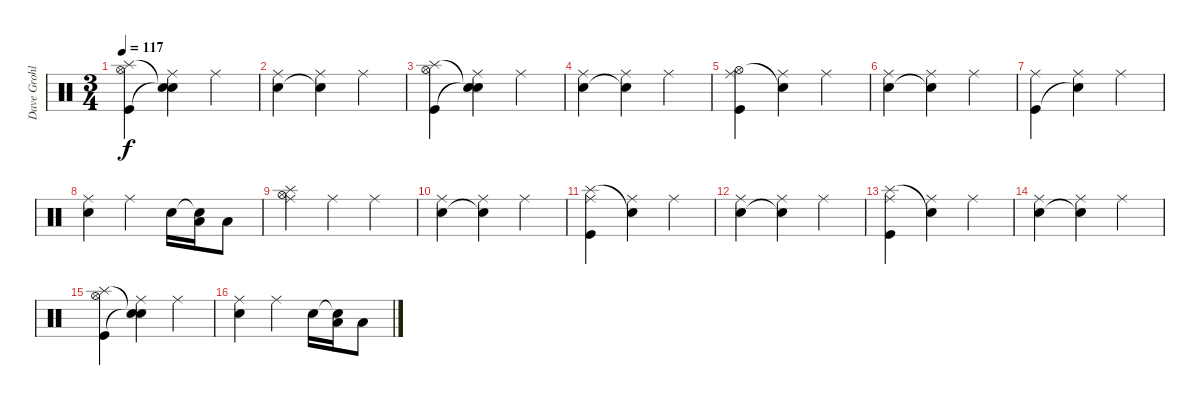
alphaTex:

\track ("Dave Grohl" "Dave Grohl") {instrument percussion}
\staff {score}
\articulation defaults
\ts (3 4)
\tempo 117
\clef neutral
\ks c
("Splash (hit)" "Kick (hit)" "Hi-Hat (open)").4{dy f} ("Snare (hit)"{t} "Snare (hit)"{t} "Ride (middle)").4 "Ride (middle)".4 |
("Electric Snare (hit)" "Ride (middle)").4 ("Snare (hit)"{t} "Ride (middle)").4 "Ride (middle)".4 |
("Splash (hit)" "Kick (hit)" "Hi-Hat (open)").4 ("Snare (hit)"{t} "Snare (hit)"{t} "Ride (middle)").4 "Ride (middle)".4 |
("Electric Snare (hit)" "Ride (middle)").4 ("Snare (hit)"{t} "Ride (middle)").4 "Ride (middle)".4 |
("Hi-Hat (open)" "Kick (hit)" "Ride (middle)").4 ("Snare (hit)"{t} "Ride (middle)").4 "Ride (middle)".4 |
("Electric Snare (hit)" "Ride (middle)").4 ("Snare (hit)"{t} "Ride (middle)").4 "Ride (middle)".4 |
("Kick (hit)" "Ride (middle)").4 ("Snare (hit)"{t} "Ride (middle)").4 "Ride (middle)".4 |
("Electric Snare (hit)" "Ride (middle)").4 "Ride (middle)".4 "Electric Snare (hit)".16 ("Snare (hit)"{t} "Low Tom (hit)").16 "Low Floor Tom (hit)".8 |
("Splash (hit)" "Hi-Hat (open)" "Ride (middle)").4 "Ride (middle)".4 "Ride (middle)".4 |
("Electric Snare (hit)" "Ride (middle)").4 ("Snare (hit)"{t} "Ride (middle)").4 "Ride (middle)".4 |
("Splash (hit)" "Kick (hit)" "Ride (middle)").4 ("Snare (hit)"{t} "Ride (middle)").4 "Ride (middle)".4 |
("Electric Snare (hit)" "Ride (middle)").4 ("Snare (hit)"{t} "Ride (middle)").4 "Ride (middle)".4 |
("Splash (hit)" "Kick (hit)" "Ride (middle)").4 ("Snare (hit)"{t} "Ride (middle)").4 "Ride (middle)".4 |
("Electric Snare (hit)" "Ride (middle)").4 ("Snare (hit)"{t} "Ride (middle)").4 "Ride (middle)".4 |
("Splash (hit)" "Kick (hit)" "Hi-Hat (open)").4 ("Snare (hit)"{t} "Snare (hit)"{t} "Ride (middle)").4 "Ride (middle)".4 |
("Electric Snare (hit)" "Ride (middle)").4 "Ride (middle)".4 "Electric Snare (hit)".16 ("Snare (hit)"{t} "Low Tom (hit)").16 "Low Floor Tom (hit)".8
